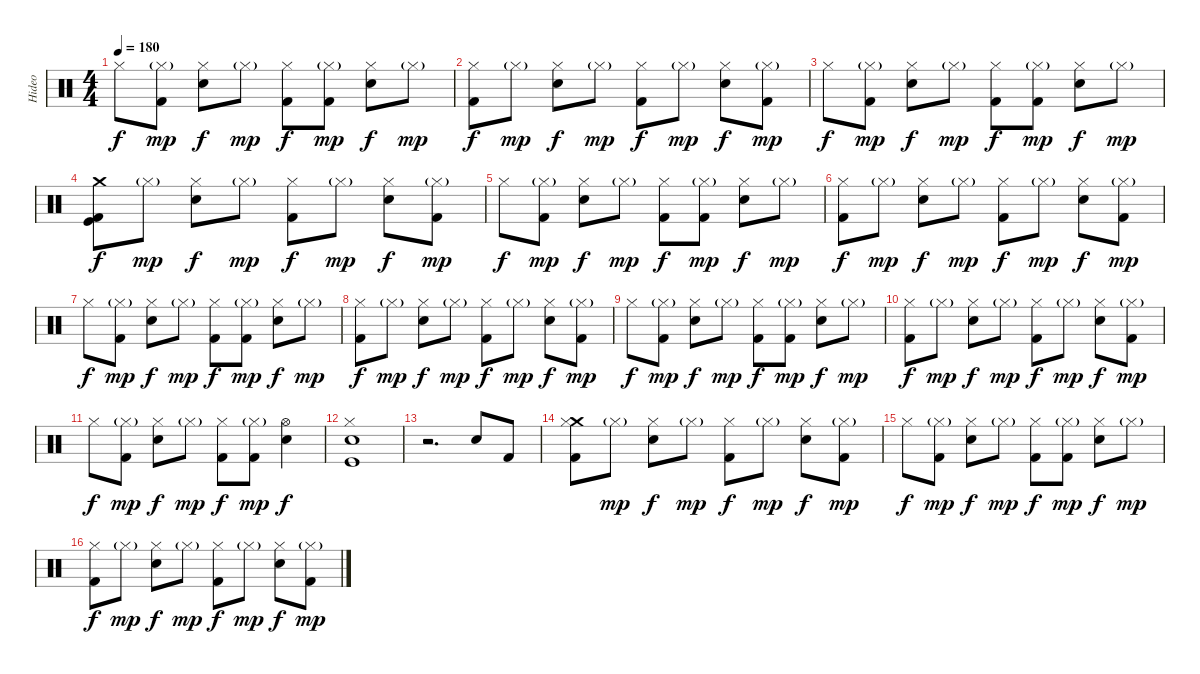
\track ("Hideo" "Hideo") {instrument percussion}
\staff {score}
\articulation defaults
\ts (4 4)
\tempo 180
\clef neutral
\ks c "Hi-Hat (closed)".8{dy f}
("Hi-Hat (closed)"{g} "Kick (hit) 2").8{dy mp} ("Hi-Hat (closed)" "Electric Snare (hit)").8{dy f} "Hi-Hat (closed)"{g}.8{dy mp} ("Hi-Hat (closed)" "Kick (hit) 2").8{dy f} ("Hi-Hat (closed)"{g} "Kick (hit) 2").8{dy mp} ("Hi-Hat (closed)" "Electric Snare (hit)").8{dy f} "Hi-Hat (closed)"{g}.8{dy mp} |
("Hi-Hat (closed)" "Kick (hit) 2").8{dy f} "Hi-Hat (closed)"{g}.8{dy mp} ("Hi-Hat (closed)" "Electric Snare (hit)").8{dy f} "Hi-Hat (closed)"{g}.8{dy mp} ("Hi-Hat (closed)" "Kick (hit) 2").8{dy f} "Hi-Hat (closed)"{g}.8{dy mp} ("Hi-Hat (closed)" "Electric Snare (hit)").8{dy f} ("Hi-Hat (closed)"{g} "Kick (hit) 2").8{dy mp} |
"Hi-Hat (closed)".8{dy f} ("Hi-Hat (closed)"{g} "Kick (hit) 2").8{dy mp} ("Hi-Hat (closed)" "Electric Snare (hit)").8{dy f} "Hi-Hat (closed)"{g}.8{dy mp} ("Hi-Hat (closed)" "Kick (hit) 2").8{dy f} ("Hi-Hat (closed)"{g} "Kick (hit) 2").8{dy mp} ("Hi-Hat (closed)" "Electric Snare (hit)").8{dy f} "Hi-Hat (closed)"{g}.8{dy mp} |
("Crash medium (hit)" "Kick (hit) 2" "Kick (hit)").8{dy f} "Hi-Hat (closed)"{g}.8{dy mp} ("Hi-Hat (closed)" "Electric Snare (hit)").8{dy f} "Hi-Hat (closed)"{g}.8{dy mp} ("Hi-Hat (closed)" "Kick (hit) 2").8{dy f} "Hi-Hat (closed)"{g}.8{dy mp} ("Hi-Hat (closed)" "Electric Snare (hit)").8{dy f} ("Hi-Hat (closed)"{g} "Kick (hit) 2").8{dy mp} |
"Hi-Hat (closed)".8{dy f} ("Hi-Hat (closed)"{g} "Kick (hit) 2").8{dy mp} ("Hi-Hat (closed)" "Electric Snare (hit)").8{dy f} "Hi-Hat (closed)"{g}.8{dy mp} ("Hi-Hat (closed)" "Kick (hit) 2").8{dy f} ("Hi-Hat (closed)"{g} "Kick (hit) 2").8{dy mp} ("Hi-Hat (closed)" "Electric Snare (hit)").8{dy f} "Hi-Hat (closed)"{g}.8{dy mp} |
("Hi-Hat (closed)" "Kick (hit) 2").8{dy f} "Hi-Hat (closed)"{g}.8{dy mp} ("Hi-Hat (closed)" "Electric Snare (hit)").8{dy f} "Hi-Hat (closed)"{g}.8{dy mp} ("Hi-Hat (closed)" "Kick (hit) 2").8{dy f} "Hi-Hat (closed)"{g}.8{dy mp} ("Hi-Hat (closed)" "Electric Snare (hit)").8{dy f} ("Hi-Hat (closed)"{g} "Kick (hit) 2").8{dy mp} |
"Hi-Hat (closed)".8{dy f} ("Hi-Hat (closed)"{g} "Kick (hit) 2").8{dy mp} ("Hi-Hat (closed)" "Electric Snare (hit)").8{dy f} "Hi-Hat (closed)"{g}.8{dy mp} ("Hi-Hat (closed)" "Kick (hit) 2").8{dy f} ("Hi-Hat (closed)"{g} "Kick (hit) 2").8{dy mp} ("Hi-Hat (closed)" "Electric Snare (hit)").8{dy f} "Hi-Hat (closed)"{g}.8{dy mp} |
("Hi-Hat (closed)" "Kick (hit) 2").8{dy f} "Hi-Hat (closed)"{g}.8{dy mp} ("Hi-Hat (closed)" "Electric Snare (hit)").8{dy f} "Hi-Hat (closed)"{g}.8{dy mp} ("Hi-Hat (closed)" "Kick (hit) 2").8{dy f} "Hi-Hat (closed)"{g}.8{dy mp} ("Hi-Hat (closed)" "Electric Snare (hit)").8{dy f} ("Hi-Hat (closed)"{g} "Kick (hit) 2").8{dy mp} |
"Hi-Hat (closed)".8{dy f} ("Hi-Hat (closed)"{g} "Kick (hit) 2").8{dy mp} ("Hi-Hat (closed)" "Electric Snare (hit)").8{dy f} "Hi-Hat (closed)"{g}.8{dy mp} ("Hi-Hat (closed)" "Kick (hit) 2").8{dy f} ("Hi-Hat (closed)"{g} "Kick (hit) 2").8{dy mp} ("Hi-Hat (closed)" "Electric Snare (hit)").8{dy f} "Hi-Hat (closed)"{g}.8{dy mp} |
("Hi-Hat (closed)" "Kick (hit) 2").8{dy f} "Hi-Hat (closed)"{g}.8{dy mp} ("Hi-Hat (closed)" "Electric Snare (hit)").8{dy f} "Hi-Hat (closed)"{g}.8{dy mp} ("Hi-Hat (closed)" "Kick (hit) 2").8{dy f} "Hi-Hat (closed)"{g}.8{dy mp} ("Hi-Hat (closed)" "Electric Snare (hit)").8{dy f} ("Hi-Hat (closed)"{g} "Kick (hit) 2").8{dy mp} |
"Hi-Hat (closed)".8{dy f} ("Hi-Hat (closed)"{g} "Kick (hit) 2").8{dy mp} ("Hi-Hat (closed)" "Electric Snare (hit)").8{dy f} "Hi-Hat (closed)"{g}.8{dy mp} ("Hi-Hat (closed)" "Kick (hit) 2").8{dy f} ("Hi-Hat (closed)"{g} "Kick (hit) 2").8{dy mp} ("Hi-Hat (open)" "Electric Snare (hit)").4{dy f} |
("Hi-Hat (closed)" "Electric Snare (hit)" "Kick (hit)").1 |
r.2{d} "Electric Snare (hit)".8 "Kick (hit) 2".8 |
("Crash medium (hit)" "Hi-Hat (closed)" "Kick (hit) 2").8 "Hi-Hat (closed)"{g}.8{dy mp} ("Hi-Hat (closed)" "Electric Snare (hit)").8{dy f} "Hi-Hat (closed)"{g}.8{dy mp} ("Hi-Hat (closed)" "Kick (hit) 2").8{dy f} "Hi-Hat (closed)"{g}.8{dy mp} ("Hi-Hat (closed)" "Electric Snare (hit)").8{dy f} ("Hi-Hat (closed)"{g} "Kick (hit) 2").8{dy mp} |
"Hi-Hat (closed)".8{dy f} ("Hi-Hat (closed)"{g} "Kick (hit) 2").8{dy mp} ("Hi-Hat (closed)" "Electric Snare (hit)").8{dy f} "Hi-Hat (closed)"{g}.8{dy mp} ("Hi-Hat (closed)" "Kick (hit) 2").8{dy f} ("Hi-Hat (closed)"{g} "Kick (hit) 2").8{dy mp} ("Hi-Hat (closed)" "Electric Snare (hit)").8{dy f} "Hi-Hat (closed)"{g}.8{dy mp} |
("Hi-Hat (closed)" "Kick (hit) 2").8{dy f} "Hi-Hat (closed)"{g}.8{dy mp} ("Hi-Hat (closed)" "Electric Snare (hit)").8{dy f} "Hi-Hat (closed)"{g}.8{dy mp} ("Hi-Hat (closed)" "Kick (hit) 2").8{dy f} "Hi-Hat (closed)"{g}.8{dy mp} ("Hi-Hat (closed)" "Electric Snare (hit)").8{dy f} ("Hi-Hat (closed)"{g} "Kick (hit) 2").8{dy mp}
